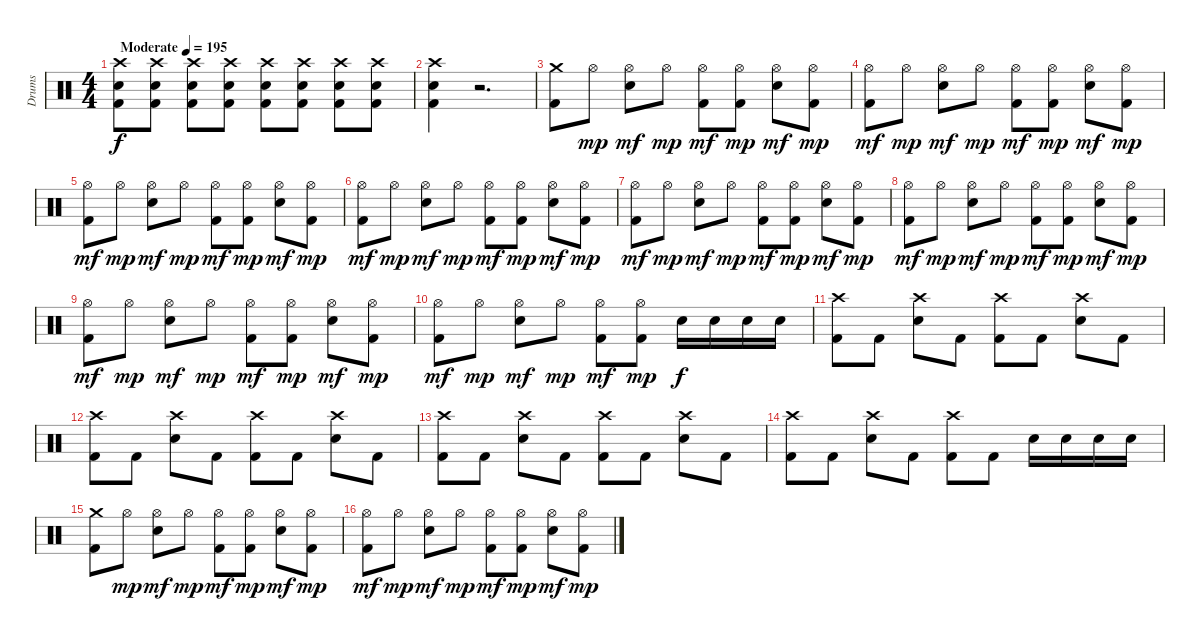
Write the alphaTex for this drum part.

\track ("Drums" "Drums") {instrument percussion}
\staff {score}
\articulation defaults
\ts (4 4)
\tempo (195 "Moderate")
\clef neutral
\ks c
("Crash high (hit)" "Electric Snare (hit)" "Kick (hit) 2").8{dy f} ("Crash high (hit)" "Electric Snare (hit)" "Kick (hit) 2").8 ("Crash high (hit)" "Electric Snare (hit)" "Kick (hit) 2").8 ("Crash high (hit)" "Electric Snare (hit)" "Kick (hit) 2").8 ("Crash high (hit)" "Electric Snare (hit)" "Kick (hit) 2").8 ("Crash high (hit)" "Electric Snare (hit)" "Kick (hit) 2").8 ("Crash high (hit)" "Electric Snare (hit)" "Kick (hit) 2").8 ("Crash high (hit)" "Electric Snare (hit)" "Kick (hit) 2").8 |
("Crash high (hit)" "Electric Snare (hit)" "Kick (hit) 2").4 r.2{d} |
("Crash medium (hit)" "Kick (hit) 2").8 "Hi-Hat (open)".8{dy mp} ("Hi-Hat (open)" "Electric Snare (hit)").8{dy mf} "Hi-Hat (open)".8{dy mp} ("Hi-Hat (open)" "Kick (hit) 2").8{dy mf} ("Hi-Hat (open)" "Kick (hit) 2").8{dy mp} ("Hi-Hat (open)" "Electric Snare (hit)").8{dy mf} ("Hi-Hat (open)" "Kick (hit) 2").8{dy mp} |
("Hi-Hat (open)" "Kick (hit) 2").8{dy mf} "Hi-Hat (open)".8{dy mp} ("Hi-Hat (open)" "Electric Snare (hit)").8{dy mf} "Hi-Hat (open)".8{dy mp} ("Hi-Hat (open)" "Kick (hit) 2").8{dy mf} ("Hi-Hat (open)" "Kick (hit) 2").8{dy mp} ("Hi-Hat (open)" "Electric Snare (hit)").8{dy mf} ("Hi-Hat (open)" "Kick (hit) 2").8{dy mp} |
("Hi-Hat (open)" "Kick (hit) 2").8{dy mf} "Hi-Hat (open)".8{dy mp} ("Hi-Hat (open)" "Electric Snare (hit)").8{dy mf} "Hi-Hat (open)".8{dy mp} ("Hi-Hat (open)" "Kick (hit) 2").8{dy mf} ("Hi-Hat (open)" "Kick (hit) 2").8{dy mp} ("Hi-Hat (open)" "Electric Snare (hit)").8{dy mf} ("Hi-Hat (open)" "Kick (hit) 2").8{dy mp} |
("Hi-Hat (open)" "Kick (hit) 2").8{dy mf} "Hi-Hat (open)".8{dy mp} ("Hi-Hat (open)" "Electric Snare (hit)").8{dy mf} "Hi-Hat (open)".8{dy mp} ("Hi-Hat (open)" "Kick (hit) 2").8{dy mf} ("Hi-Hat (open)" "Kick (hit) 2").8{dy mp} ("Hi-Hat (open)" "Electric Snare (hit)").8{dy mf} ("Hi-Hat (open)" "Kick (hit) 2").8{dy mp} |
("Hi-Hat (open)" "Kick (hit) 2").8{dy mf} "Hi-Hat (open)".8{dy mp} ("Hi-Hat (open)" "Electric Snare (hit)").8{dy mf} "Hi-Hat (open)".8{dy mp} ("Hi-Hat (open)" "Kick (hit) 2").8{dy mf} ("Hi-Hat (open)" "Kick (hit) 2").8{dy mp} ("Hi-Hat (open)" "Electric Snare (hit)").8{dy mf} ("Hi-Hat (open)" "Kick (hit) 2").8{dy mp} |
("Hi-Hat (open)" "Kick (hit) 2").8{dy mf} "Hi-Hat (open)".8{dy mp} ("Hi-Hat (open)" "Electric Snare (hit)").8{dy mf} "Hi-Hat (open)".8{dy mp} ("Hi-Hat (open)" "Kick (hit) 2").8{dy mf} ("Hi-Hat (open)" "Kick (hit) 2").8{dy mp} ("Hi-Hat (open)" "Electric Snare (hit)").8{dy mf} ("Hi-Hat (open)" "Kick (hit) 2").8{dy mp} |
("Hi-Hat (open)" "Kick (hit) 2").8{dy mf} "Hi-Hat (open)".8{dy mp} ("Hi-Hat (open)" "Electric Snare (hit)").8{dy mf} "Hi-Hat (open)".8{dy mp} ("Hi-Hat (open)" "Kick (hit) 2").8{dy mf} ("Hi-Hat (open)" "Kick (hit) 2").8{dy mp} ("Hi-Hat (open)" "Electric Snare (hit)").8{dy mf} ("Hi-Hat (open)" "Kick (hit) 2").8{dy mp} |
("Hi-Hat (open)" "Kick (hit) 2").8{dy mf} "Hi-Hat (open)".8{dy mp} ("Hi-Hat (open)" "Electric Snare (hit)").8{dy mf} "Hi-Hat (open)".8{dy mp} ("Hi-Hat (open)" "Kick (hit) 2").8{dy mf} ("Hi-Hat (open)" "Kick (hit) 2").8{dy mp} "Electric Snare (hit)".16{dy f} "Electric Snare (hit)".16 "Electric Snare (hit)".16 "Electric Snare (hit)".16 |
("Crash high (hit)" "Kick (hit) 2").8 "Kick (hit) 2".8 ("Crash high (hit)" "Electric Snare (hit)").8 "Kick (hit) 2".8 ("Crash high (hit)" "Kick (hit) 2").8 "Kick (hit) 2".8 ("Crash high (hit)" "Electric Snare (hit)").8 "Kick (hit) 2".8 |
("Crash high (hit)" "Kick (hit) 2").8 "Kick (hit) 2".8 ("Crash high (hit)" "Electric Snare (hit)").8 "Kick (hit) 2".8 ("Crash high (hit)" "Kick (hit) 2").8 "Kick (hit) 2".8 ("Crash high (hit)" "Electric Snare (hit)").8 "Kick (hit) 2".8 |
("Crash high (hit)" "Kick (hit) 2").8 "Kick (hit) 2".8 ("Crash high (hit)" "Electric Snare (hit)").8 "Kick (hit) 2".8 ("Crash high (hit)" "Kick (hit) 2").8 "Kick (hit) 2".8 ("Crash high (hit)" "Electric Snare (hit)").8 "Kick (hit) 2".8 |
("Crash high (hit)" "Kick (hit) 2").8 "Kick (hit) 2".8 ("Crash high (hit)" "Electric Snare (hit)").8 "Kick (hit) 2".8 ("Crash high (hit)" "Kick (hit) 2").8 "Kick (hit) 2".8 "Electric Snare (hit)".16 "Electric Snare (hit)".16 "Electric Snare (hit)".16 "Electric Snare (hit)".16 |
("Crash medium (hit)" "Kick (hit) 2").8 "Hi-Hat (open)".8{dy mp} ("Hi-Hat (open)" "Electric Snare (hit)").8{dy mf} "Hi-Hat (open)".8{dy mp} ("Hi-Hat (open)" "Kick (hit) 2").8{dy mf} ("Hi-Hat (open)" "Kick (hit) 2").8{dy mp} ("Hi-Hat (open)" "Electric Snare (hit)").8{dy mf} ("Hi-Hat (open)" "Kick (hit) 2").8{dy mp} |
("Hi-Hat (open)" "Kick (hit) 2").8{dy mf} "Hi-Hat (open)".8{dy mp} ("Hi-Hat (open)" "Electric Snare (hit)").8{dy mf} "Hi-Hat (open)".8{dy mp} ("Hi-Hat (open)" "Kick (hit) 2").8{dy mf} ("Hi-Hat (open)" "Kick (hit) 2").8{dy mp} ("Hi-Hat (open)" "Electric Snare (hit)").8{dy mf} ("Hi-Hat (open)" "Kick (hit) 2").8{dy mp}
